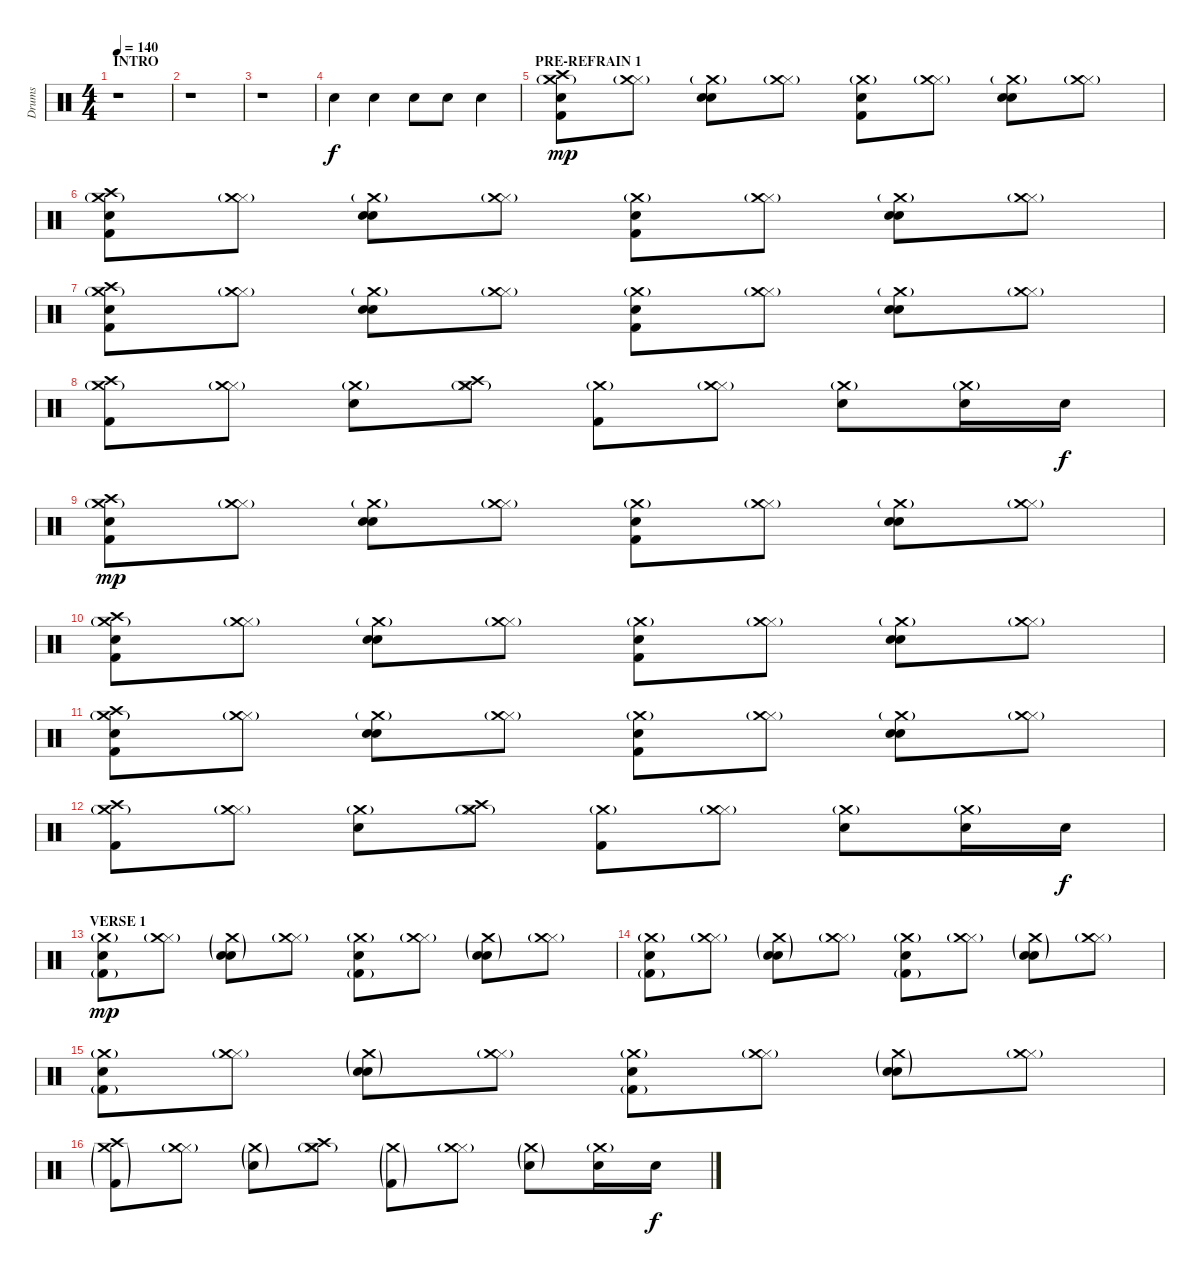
\track ("Drums" "Drums") {instrument percussion}
\staff {score}
\articulation defaults
\ts (4 4)
\section ("" "INTRO")
\tempo 140
\clef neutral
\ks c
r.1{dy f} |
r.1 |
r.1 |
"Electric Snare (hit)".4 "Electric Snare (hit)".4 "Electric Snare (hit)".8 "Electric Snare (hit)".8 "Electric Snare (hit)".4 |
\section ("" "PRE-REFRAIN 1")
("Kick (hit) 2" "Hand Clap (hit)" "Crash medium (hit)"{g} "Crash high (hit)").8{dy mp} ("Hi-Hat (closed)" "Crash medium (hit)"{g}).8 ("Electric Snare (hit)" "Hand Clap (hit)" "Crash medium (hit)"{g}).8 ("Hi-Hat (closed)" "Crash medium (hit)"{g}).8 ("Kick (hit) 2" "Hand Clap (hit)" "Crash medium (hit)"{g}).8 ("Hi-Hat (closed)" "Crash medium (hit)"{g}).8 ("Electric Snare (hit)" "Hand Clap (hit)" "Crash medium (hit)"{g}).8 ("Hi-Hat (closed)" "Crash medium (hit)"{g}).8 |
("Kick (hit) 2" "Hand Clap (hit)" "Crash medium (hit)"{g} "Crash high (hit)").8 ("Hi-Hat (closed)" "Crash medium (hit)"{g}).8 ("Electric Snare (hit)" "Hand Clap (hit)" "Crash medium (hit)"{g}).8 ("Hi-Hat (closed)" "Crash medium (hit)"{g}).8 ("Kick (hit) 2" "Hand Clap (hit)" "Crash medium (hit)"{g}).8 ("Hi-Hat (closed)" "Crash medium (hit)"{g}).8 ("Electric Snare (hit)" "Hand Clap (hit)" "Crash medium (hit)"{g}).8 ("Hi-Hat (closed)" "Crash medium (hit)"{g}).8 |
("Kick (hit) 2" "Hand Clap (hit)" "Crash medium (hit)"{g} "Crash high (hit)").8 ("Hi-Hat (closed)" "Crash medium (hit)"{g}).8 ("Electric Snare (hit)" "Hand Clap (hit)" "Crash medium (hit)"{g}).8 ("Hi-Hat (closed)" "Crash medium (hit)"{g}).8 ("Kick (hit) 2" "Hand Clap (hit)" "Crash medium (hit)"{g}).8 ("Hi-Hat (closed)" "Crash medium (hit)"{g}).8 ("Electric Snare (hit)" "Hand Clap (hit)" "Crash medium (hit)"{g}).8 ("Hi-Hat (closed)" "Crash medium (hit)"{g}).8 |
("Kick (hit) 2" "Crash medium (hit)"{g} "Crash high (hit)").8 ("Hi-Hat (closed)" "Crash medium (hit)"{g}).8 ("Electric Snare (hit)" "Crash medium (hit)"{g}).8 ("Hi-Hat (closed)" "Crash medium (hit)"{g} "Crash high (hit)").8 ("Kick (hit) 2" "Crash medium (hit)"{g}).8 ("Hi-Hat (closed)" "Crash medium (hit)"{g}).8 ("Electric Snare (hit)" "Crash medium (hit)"{g}).8 ("Electric Snare (hit)" "Crash medium (hit)"{g}).16 "Electric Snare (hit)".16{dy f} |
("Kick (hit) 2" "Hand Clap (hit)" "Crash medium (hit)"{g} "Crash high (hit)").8{dy mp} ("Hi-Hat (closed)" "Crash medium (hit)"{g}).8 ("Electric Snare (hit)" "Hand Clap (hit)" "Crash medium (hit)"{g}).8 ("Hi-Hat (closed)" "Crash medium (hit)"{g}).8 ("Kick (hit) 2" "Hand Clap (hit)" "Crash medium (hit)"{g}).8 ("Hi-Hat (closed)" "Crash medium (hit)"{g}).8 ("Electric Snare (hit)" "Hand Clap (hit)" "Crash medium (hit)"{g}).8 ("Hi-Hat (closed)" "Crash medium (hit)"{g}).8 |
("Kick (hit) 2" "Hand Clap (hit)" "Crash medium (hit)"{g} "Crash high (hit)").8 ("Hi-Hat (closed)" "Crash medium (hit)"{g}).8 ("Electric Snare (hit)" "Hand Clap (hit)" "Crash medium (hit)"{g}).8 ("Hi-Hat (closed)" "Crash medium (hit)"{g}).8 ("Kick (hit) 2" "Hand Clap (hit)" "Crash medium (hit)"{g}).8 ("Hi-Hat (closed)" "Crash medium (hit)"{g}).8 ("Electric Snare (hit)" "Hand Clap (hit)" "Crash medium (hit)"{g}).8 ("Hi-Hat (closed)" "Crash medium (hit)"{g}).8 |
("Kick (hit) 2" "Hand Clap (hit)" "Crash medium (hit)"{g} "Crash high (hit)").8 ("Hi-Hat (closed)" "Crash medium (hit)"{g}).8 ("Electric Snare (hit)" "Hand Clap (hit)" "Crash medium (hit)"{g}).8 ("Hi-Hat (closed)" "Crash medium (hit)"{g}).8 ("Kick (hit) 2" "Hand Clap (hit)" "Crash medium (hit)"{g}).8 ("Hi-Hat (closed)" "Crash medium (hit)"{g}).8 ("Electric Snare (hit)" "Hand Clap (hit)" "Crash medium (hit)"{g}).8 ("Hi-Hat (closed)" "Crash medium (hit)"{g}).8 |
("Kick (hit) 2" "Crash medium (hit)"{g} "Crash high (hit)").8 ("Hi-Hat (closed)" "Crash medium (hit)"{g}).8 ("Electric Snare (hit)" "Crash medium (hit)"{g}).8 ("Hi-Hat (closed)" "Crash medium (hit)"{g} "Crash high (hit)").8 ("Kick (hit) 2" "Crash medium (hit)"{g}).8 ("Hi-Hat (closed)" "Crash medium (hit)"{g}).8 ("Electric Snare (hit)" "Crash medium (hit)"{g}).8 ("Electric Snare (hit)" "Crash medium (hit)"{g}).16 "Electric Snare (hit)".16{dy f} |
\section ("" "VERSE 1")
("Kick (hit) 2"{g} "Hand Clap (hit)" "Crash medium (hit)"{g}).8{dy mp} ("Hi-Hat (closed)" "Crash medium (hit)"{g}).8 ("Electric Snare (hit)"{g} "Hand Clap (hit)" "Crash medium (hit)"{g}).8 ("Hi-Hat (closed)" "Crash medium (hit)"{g}).8 ("Kick (hit) 2"{g} "Hand Clap (hit)" "Crash medium (hit)"{g}).8 ("Hi-Hat (closed)" "Crash medium (hit)"{g}).8 ("Electric Snare (hit)"{g} "Hand Clap (hit)" "Crash medium (hit)"{g}).8 ("Hi-Hat (closed)" "Crash medium (hit)"{g}).8 |
("Kick (hit) 2"{g} "Hand Clap (hit)" "Crash medium (hit)"{g}).8 ("Hi-Hat (closed)" "Crash medium (hit)"{g}).8 ("Electric Snare (hit)"{g} "Hand Clap (hit)" "Crash medium (hit)"{g}).8 ("Hi-Hat (closed)" "Crash medium (hit)"{g}).8 ("Kick (hit) 2"{g} "Hand Clap (hit)" "Crash medium (hit)"{g}).8 ("Hi-Hat (closed)" "Crash medium (hit)"{g}).8 ("Electric Snare (hit)"{g} "Hand Clap (hit)" "Crash medium (hit)"{g}).8 ("Hi-Hat (closed)" "Crash medium (hit)"{g}).8 |
("Kick (hit) 2"{g} "Hand Clap (hit)" "Crash medium (hit)"{g}).8 ("Hi-Hat (closed)" "Crash medium (hit)"{g}).8 ("Electric Snare (hit)"{g} "Hand Clap (hit)" "Crash medium (hit)"{g}).8 ("Hi-Hat (closed)" "Crash medium (hit)"{g}).8 ("Kick (hit) 2"{g} "Hand Clap (hit)" "Crash medium (hit)"{g}).8 ("Hi-Hat (closed)" "Crash medium (hit)"{g}).8 ("Electric Snare (hit)"{g} "Hand Clap (hit)" "Crash medium (hit)"{g}).8 ("Hi-Hat (closed)" "Crash medium (hit)"{g}).8 |
("Kick (hit) 2"{g} "Crash medium (hit)"{g} "Crash high (hit)").8 ("Hi-Hat (closed)" "Crash medium (hit)"{g}).8 ("Electric Snare (hit)"{g} "Crash medium (hit)"{g}).8 ("Hi-Hat (closed)" "Crash medium (hit)"{g} "Crash high (hit)").8 ("Kick (hit) 2"{g} "Crash medium (hit)"{g}).8 ("Hi-Hat (closed)" "Crash medium (hit)"{g}).8 ("Electric Snare (hit)"{g} "Crash medium (hit)"{g}).8 ("Electric Snare (hit)" "Crash medium (hit)"{g}).16 "Electric Snare (hit)".16{dy f}
